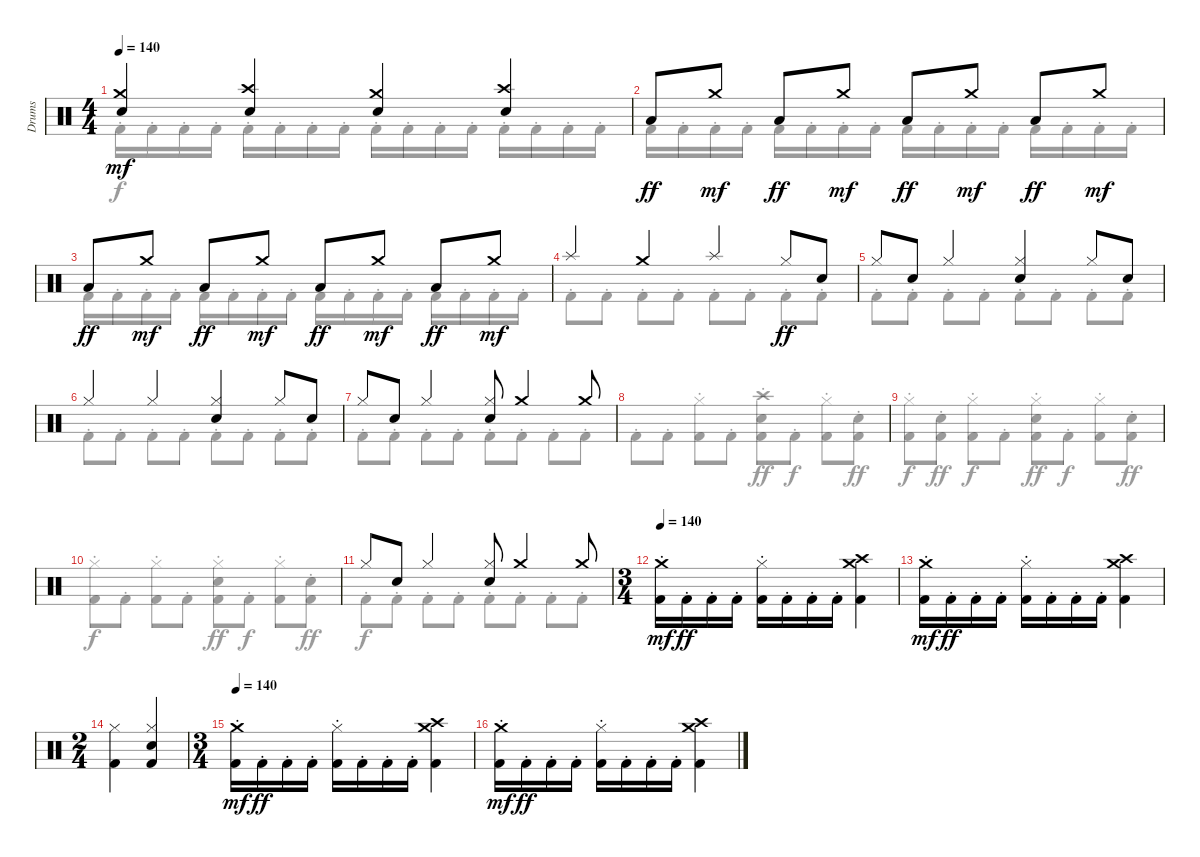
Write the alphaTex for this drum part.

\track ("Drums" "Drums") {instrument percussion}
\staff {score}
\articulation defaults
\voice
\ts (4 4)
\tempo 140
\clef neutral
\ks aminor
("Crash medium (hit)" "Electric Snare (hit)").4{dy mf} ("Crash high (hit)" "Electric Snare (hit)").4 ("Crash medium (hit)" "Electric Snare (hit)").4 ("Crash high (hit)" "Electric Snare (hit)").4 |
"Low Tom (hit)".8{dy ff} "Crash medium (hit)".8{dy mf} "Low Tom (hit)".8{dy ff} "Crash medium (hit)".8{dy mf} "Low Tom (hit)".8{dy ff} "Crash medium (hit)".8{dy mf} "Low Tom (hit)".8{dy ff} "Crash medium (hit)".8{dy mf} |
"Low Tom (hit)".8{dy ff} "Crash medium (hit)".8{dy mf} "Low Tom (hit)".8{dy ff} "Crash medium (hit)".8{dy mf} "Low Tom (hit)".8{dy ff} "Crash medium (hit)".8{dy mf} "Low Tom (hit)".8{dy ff} "Crash medium (hit)".8{dy mf} |
"Splash (hit)".4{volume 11} "Crash medium (hit)".4 "Splash (hit)".4 "Hi-Hat (closed)".8{dy ff} "Electric Snare (hit)".8 |
"Hi-Hat (closed)".8 "Electric Snare (hit)".8 "Hi-Hat (closed)".4 ("Hi-Hat (closed)" "Electric Snare (hit)").4 "Hi-Hat (closed)".8 "Electric Snare (hit)".8 |
"Hi-Hat (closed)".4 "Hi-Hat (closed)".4 ("Hi-Hat (closed)" "Electric Snare (hit)").4 "Hi-Hat (closed)".8 "Electric Snare (hit)".8 |
"Hi-Hat (closed)".8 "Electric Snare (hit)".8 "Hi-Hat (closed)".4 ("Hi-Hat (closed)" "Electric Snare (hit)").8 "Crash medium (hit)".4 "Crash medium (hit)".8 |
|
|
|
"Hi-Hat (closed)".8 "Electric Snare (hit)".8 "Hi-Hat (closed)".4 ("Hi-Hat (closed)" "Electric Snare (hit)").8 "Crash medium (hit)".4 "Crash medium (hit)".8 |
\ts (3 4)
\tempo 140
("Kick (hit) 2"{st} "Crash medium (hit)").16{dy mf volume 9} "Kick (hit) 2"{st}.16{dy ff} "Kick (hit) 2"{st}.16 "Kick (hit) 2"{st}.16 ("Kick (hit) 2"{st} "Hi-Hat (closed)").16 "Kick (hit) 2"{st}.16 "Kick (hit) 2"{st}.16 "Kick (hit) 2"{st}.16 ("Kick (hit) 2" "Crash medium (hit)" "Crash high (hit)").4 |
("Kick (hit) 2"{st} "Crash medium (hit)").16{dy mf} "Kick (hit) 2"{st}.16{dy ff} "Kick (hit) 2"{st}.16 "Kick (hit) 2"{st}.16 ("Kick (hit) 2"{st} "Hi-Hat (closed)").16 "Kick (hit) 2"{st}.16 "Kick (hit) 2"{st}.16 "Kick (hit) 2"{st}.16 ("Kick (hit) 2" "Crash medium (hit)" "Crash high (hit)").4 |
\ts (2 4)
("Hi-Hat (closed)" "Kick (hit) 2").4 ("Hi-Hat (closed)" "Kick (hit) 2" "Electric Snare (hit)").4 |
\ts (3 4)
\tempo 140
("Kick (hit) 2"{st} "Crash medium (hit)").16{dy mf} "Kick (hit) 2"{st}.16{dy ff} "Kick (hit) 2"{st}.16 "Kick (hit) 2"{st}.16 ("Kick (hit) 2"{st} "Hi-Hat (closed)").16 "Kick (hit) 2"{st}.16 "Kick (hit) 2"{st}.16 "Kick (hit) 2"{st}.16 ("Kick (hit) 2" "Crash medium (hit)" "Crash high (hit)").4 |
("Kick (hit) 2"{st} "Crash medium (hit)").16{dy mf} "Kick (hit) 2"{st}.16{dy ff} "Kick (hit) 2"{st}.16 "Kick (hit) 2"{st}.16 ("Kick (hit) 2"{st} "Hi-Hat (closed)").16 "Kick (hit) 2"{st}.16 "Kick (hit) 2"{st}.16 "Kick (hit) 2"{st}.16 ("Kick (hit) 2" "Crash medium (hit)" "Crash high (hit)").4
\voice
\clef neutral
\ottava regular
\simile none
\ks aminor "Kick (hit) 2"{st}.16{dy f} "Kick (hit) 2"{st}.16 "Kick (hit) 2"{st}.16 "Kick (hit) 2"{st}.16 "Kick (hit) 2"{st}.16 "Kick (hit) 2"{st}.16 "Kick (hit) 2"{st}.16 "Kick (hit) 2"{st}.16 "Kick (hit) 2"{st}.16 "Kick (hit) 2"{st}.16 "Kick (hit) 2"{st}.16 "Kick (hit) 2"{st}.16 "Kick (hit) 2"{st}.16 "Kick (hit) 2"{st}.16 "Kick (hit) 2"{st}.16 "Kick (hit) 2"{st}.16
|
"Kick (hit) 2"{st}.16 "Kick (hit) 2"{st}.16 "Kick (hit) 2"{st}.16 "Kick (hit) 2"{st}.16 "Kick (hit) 2"{st}.16 "Kick (hit) 2"{st}.16 "Kick (hit) 2"{st}.16 "Kick (hit) 2"{st}.16 "Kick (hit) 2"{st}.16 "Kick (hit) 2"{st}.16 "Kick (hit) 2"{st}.16 "Kick (hit) 2"{st}.16 "Kick (hit) 2"{st}.16 "Kick (hit) 2"{st}.16 "Kick (hit) 2"{st}.16 "Kick (hit) 2"{st}.16 |
"Kick (hit) 2"{st}.16 "Kick (hit) 2"{st}.16 "Kick (hit) 2"{st}.16 "Kick (hit) 2"{st}.16 "Kick (hit) 2"{st}.16 "Kick (hit) 2"{st}.16 "Kick (hit) 2"{st}.16 "Kick (hit) 2"{st}.16 "Kick (hit) 2"{st}.16 "Kick (hit) 2"{st}.16 "Kick (hit) 2"{st}.16 "Kick (hit) 2"{st}.16 "Kick (hit) 2"{st}.16 "Kick (hit) 2"{st}.16 "Kick (hit) 2"{st}.16 "Kick (hit) 2"{st}.16 |
"Kick (hit) 2"{st}.8 "Kick (hit) 2"{st}.8 "Kick (hit) 2"{st}.8 "Kick (hit) 2"{st}.8 "Kick (hit) 2"{st}.8 "Kick (hit) 2"{st}.8 "Kick (hit) 2"{st}.8 "Kick (hit) 2"{st}.8 |
"Kick (hit) 2"{st}.8 "Kick (hit) 2"{st}.8 "Kick (hit) 2"{st}.8 "Kick (hit) 2"{st}.8 "Kick (hit) 2"{st}.8 "Kick (hit) 2"{st}.8 "Kick (hit) 2"{st}.8 "Kick (hit) 2"{st}.8 |
"Kick (hit) 2"{st}.8 "Kick (hit) 2"{st}.8 "Kick (hit) 2"{st}.8 "Kick (hit) 2"{st}.8 "Kick (hit) 2"{st}.8 "Kick (hit) 2"{st}.8 "Kick (hit) 2"{st}.8 "Kick (hit) 2"{st}.8 |
"Kick (hit) 2"{st}.8 "Kick (hit) 2"{st}.8 "Kick (hit) 2"{st}.8 "Kick (hit) 2"{st}.8 "Kick (hit) 2"{st}.8 "Kick (hit) 2"{st}.8 "Kick (hit) 2"{st}.8 "Kick (hit) 2"{st}.8 |
"Kick (hit) 2"{st}.8 "Kick (hit) 2"{st}.8 ("Kick (hit) 2"{st} "Hi-Hat (closed)").8 "Kick (hit) 2"{st}.8 ("Kick (hit) 2"{st} "Crash high (hit)" "Electric Snare (hit)").8{dy ff} "Kick (hit) 2"{st}.8{dy f} ("Kick (hit) 2"{st} "Hi-Hat (closed)").8 ("Kick (hit) 2"{st} "Electric Snare (hit)").8{dy ff} |
("Kick (hit) 2"{st} "Hi-Hat (closed)").8{dy f} ("Kick (hit) 2"{st} "Electric Snare (hit)").8{dy ff} ("Kick (hit) 2"{st} "Hi-Hat (closed)").8{dy f} "Kick (hit) 2"{st}.8 ("Kick (hit) 2"{st} "Hi-Hat (closed)" "Electric Snare (hit)").8{dy ff} "Kick (hit) 2"{st}.8{dy f} ("Kick (hit) 2"{st} "Hi-Hat (closed)").8 ("Kick (hit) 2"{st} "Electric Snare (hit)").8{dy ff} |
("Kick (hit) 2"{st} "Hi-Hat (closed)").8{dy f} "Kick (hit) 2"{st}.8 ("Kick (hit) 2"{st} "Hi-Hat (closed)").8 "Kick (hit) 2"{st}.8 ("Kick (hit) 2"{st} "Hi-Hat (closed)" "Electric Snare (hit)").8{dy ff} "Kick (hit) 2"{st}.8{dy f} ("Kick (hit) 2"{st} "Hi-Hat (closed)").8 ("Kick (hit) 2"{st} "Electric Snare (hit)").8{dy ff} |
"Kick (hit) 2"{st}.8{dy f} "Kick (hit) 2"{st}.8 "Kick (hit) 2"{st}.8 "Kick (hit) 2"{st}.8 "Kick (hit) 2"{st}.8 "Kick (hit) 2"{st}.8 "Kick (hit) 2"{st}.8 "Kick (hit) 2"{st}.8 |
|
|
|
|
